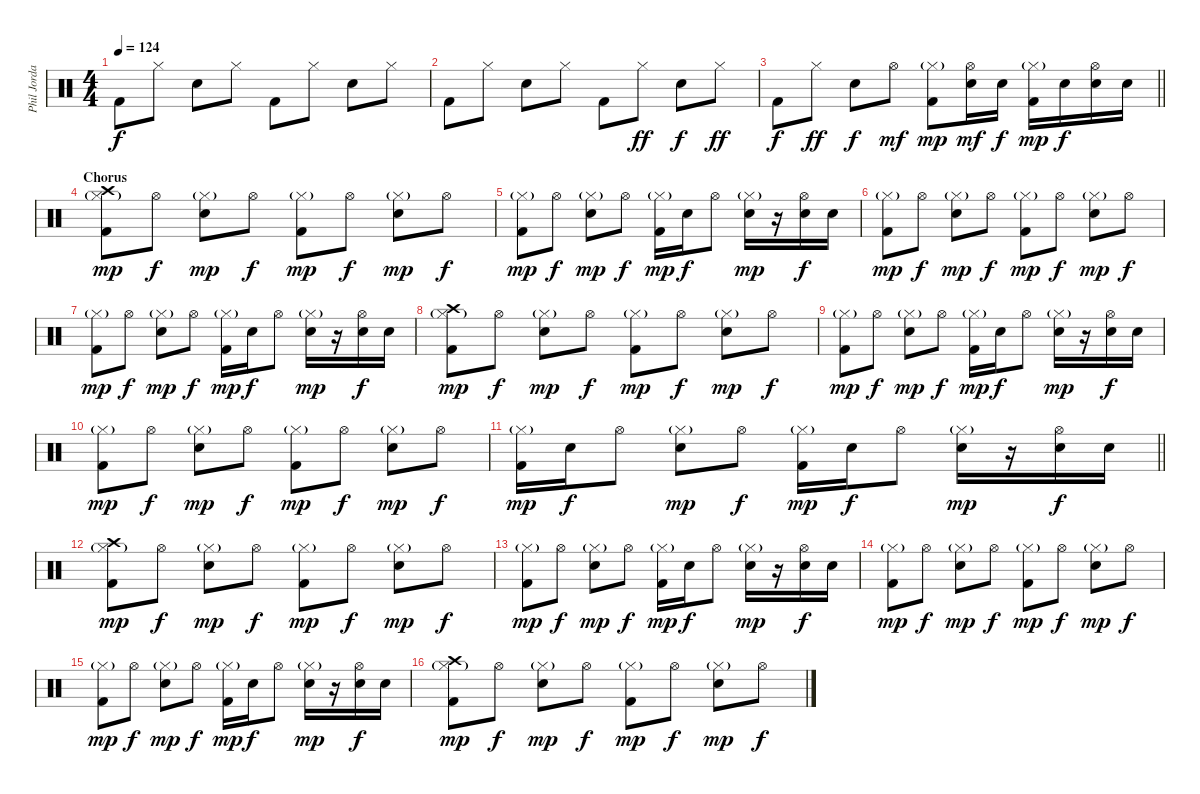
\track ("Phil Jordan (Drums)" "Phil Jorda") {instrument percussion}
\staff {score}
\articulation defaults
\ts (4 4)
\tempo 124
\clef neutral
\ks c "Kick (hit) 2".8{dy f} "Hi-Hat (closed)".8 "Electric Snare (hit)".8 "Hi-Hat (closed)".8 "Kick (hit) 2".8 "Hi-Hat (closed)".8 "Electric Snare (hit)".8 "Hi-Hat (closed)".8
|
"Kick (hit) 2".8 "Hi-Hat (closed)".8 "Electric Snare (hit)".8 "Hi-Hat (closed)".8 "Kick (hit) 2".8 "Hi-Hat (closed)".8{dy ff} "Electric Snare (hit)".8{dy f} "Hi-Hat (closed)".8{dy ff} |
\barLineRight lightlight "Kick (hit) 2".8{dy f} "Hi-Hat (closed)".8{dy ff} "Electric Snare (hit)".8{dy f} "Hi-Hat (open)".8{dy mf}
("Hi-Hat (closed)"{g} "Kick (hit) 2").8{dy mp} ("Hi-Hat (open)" "Electric Snare (hit)").16{dy mf} "Electric Snare (hit)".16{dy f} ("Hi-Hat (closed)"{g} "Kick (hit) 2").16{dy mp} "Electric Snare (hit)".16{dy f} ("Hi-Hat (open)" "Electric Snare (hit)").16 "Electric Snare (hit)".16 |
\section ("" "Chorus")
("Crash high (hit)" "Hi-Hat (closed)"{g} "Kick (hit) 2").8{dy mp} "Hi-Hat (open)".8{dy f} ("Hi-Hat (closed)"{g} "Electric Snare (hit)").8{dy mp} "Hi-Hat (open)".8{dy f} ("Hi-Hat (closed)"{g} "Kick (hit) 2").8{dy mp} "Hi-Hat (open)".8{dy f} ("Hi-Hat (closed)"{g} "Electric Snare (hit)").8{dy mp} "Hi-Hat (open)".8{dy f} |
("Hi-Hat (closed)"{g} "Kick (hit) 2").8{dy mp} "Hi-Hat (open)".8{dy f} ("Hi-Hat (closed)"{g} "Electric Snare (hit)").8{dy mp} "Hi-Hat (open)".8{dy f} ("Hi-Hat (closed)"{g} "Kick (hit) 2").16{dy mp} "Electric Snare (hit)".16{dy f} "Hi-Hat (open)".8 ("Hi-Hat (closed)"{g} "Electric Snare (hit)").16{dy mp} r.16 ("Hi-Hat (open)" "Electric Snare (hit)").16{dy f} "Electric Snare (hit)".16 |
("Hi-Hat (closed)"{g} "Kick (hit) 2").8{dy mp} "Hi-Hat (open)".8{dy f} ("Hi-Hat (closed)"{g} "Electric Snare (hit)").8{dy mp} "Hi-Hat (open)".8{dy f} ("Hi-Hat (closed)"{g} "Kick (hit) 2").8{dy mp} "Hi-Hat (open)".8{dy f} ("Hi-Hat (closed)"{g} "Electric Snare (hit)").8{dy mp} "Hi-Hat (open)".8{dy f} |
("Hi-Hat (closed)"{g} "Kick (hit) 2").8{dy mp} "Hi-Hat (open)".8{dy f} ("Hi-Hat (closed)"{g} "Electric Snare (hit)").8{dy mp} "Hi-Hat (open)".8{dy f} ("Hi-Hat (closed)"{g} "Kick (hit) 2").16{dy mp} "Electric Snare (hit)".16{dy f} "Hi-Hat (open)".8 ("Hi-Hat (closed)"{g} "Electric Snare (hit)").16{dy mp} r.16 ("Hi-Hat (open)" "Electric Snare (hit)").16{dy f} "Electric Snare (hit)".16 |
("Crash high (hit)" "Hi-Hat (closed)"{g} "Kick (hit) 2").8{dy mp} "Hi-Hat (open)".8{dy f} ("Hi-Hat (closed)"{g} "Electric Snare (hit)").8{dy mp} "Hi-Hat (open)".8{dy f} ("Hi-Hat (closed)"{g} "Kick (hit) 2").8{dy mp} "Hi-Hat (open)".8{dy f} ("Hi-Hat (closed)"{g} "Electric Snare (hit)").8{dy mp} "Hi-Hat (open)".8{dy f} |
("Hi-Hat (closed)"{g} "Kick (hit) 2").8{dy mp} "Hi-Hat (open)".8{dy f} ("Hi-Hat (closed)"{g} "Electric Snare (hit)").8{dy mp} "Hi-Hat (open)".8{dy f} ("Hi-Hat (closed)"{g} "Kick (hit) 2").16{dy mp} "Electric Snare (hit)".16{dy f} "Hi-Hat (open)".8 ("Hi-Hat (closed)"{g} "Electric Snare (hit)").16{dy mp} r.16 ("Hi-Hat (open)" "Electric Snare (hit)").16{dy f} "Electric Snare (hit)".16 |
("Hi-Hat (closed)"{g} "Kick (hit) 2").8{dy mp} "Hi-Hat (open)".8{dy f} ("Hi-Hat (closed)"{g} "Electric Snare (hit)").8{dy mp} "Hi-Hat (open)".8{dy f} ("Hi-Hat (closed)"{g} "Kick (hit) 2").8{dy mp} "Hi-Hat (open)".8{dy f} ("Hi-Hat (closed)"{g} "Electric Snare (hit)").8{dy mp} "Hi-Hat (open)".8{dy f} |
\barLineRight lightlight
("Hi-Hat (closed)"{g} "Kick (hit) 2").16{dy mp} "Electric Snare (hit)".16{dy f} "Hi-Hat (open)".8 ("Hi-Hat (closed)"{g} "Electric Snare (hit)").8{dy mp} "Hi-Hat (open)".8{dy f} ("Hi-Hat (closed)"{g} "Kick (hit) 2").16{dy mp} "Electric Snare (hit)".16{dy f} "Hi-Hat (open)".8 ("Hi-Hat (closed)"{g} "Electric Snare (hit)").16{dy mp} r.16 ("Hi-Hat (open)" "Electric Snare (hit)").16{dy f} "Electric Snare (hit)".16 |
("Crash high (hit)" "Hi-Hat (closed)"{g} "Kick (hit) 2").8{dy mp} "Hi-Hat (open)".8{dy f} ("Hi-Hat (closed)"{g} "Electric Snare (hit)").8{dy mp} "Hi-Hat (open)".8{dy f} ("Hi-Hat (closed)"{g} "Kick (hit) 2").8{dy mp} "Hi-Hat (open)".8{dy f} ("Hi-Hat (closed)"{g} "Electric Snare (hit)").8{dy mp} "Hi-Hat (open)".8{dy f} |
("Hi-Hat (closed)"{g} "Kick (hit) 2").8{dy mp} "Hi-Hat (open)".8{dy f} ("Hi-Hat (closed)"{g} "Electric Snare (hit)").8{dy mp} "Hi-Hat (open)".8{dy f} ("Hi-Hat (closed)"{g} "Kick (hit) 2").16{dy mp} "Electric Snare (hit)".16{dy f} "Hi-Hat (open)".8 ("Hi-Hat (closed)"{g} "Electric Snare (hit)").16{dy mp} r.16 ("Hi-Hat (open)" "Electric Snare (hit)").16{dy f} "Electric Snare (hit)".16 |
("Hi-Hat (closed)"{g} "Kick (hit) 2").8{dy mp} "Hi-Hat (open)".8{dy f} ("Hi-Hat (closed)"{g} "Electric Snare (hit)").8{dy mp} "Hi-Hat (open)".8{dy f} ("Hi-Hat (closed)"{g} "Kick (hit) 2").8{dy mp} "Hi-Hat (open)".8{dy f} ("Hi-Hat (closed)"{g} "Electric Snare (hit)").8{dy mp} "Hi-Hat (open)".8{dy f} |
("Hi-Hat (closed)"{g} "Kick (hit) 2").8{dy mp} "Hi-Hat (open)".8{dy f} ("Hi-Hat (closed)"{g} "Electric Snare (hit)").8{dy mp} "Hi-Hat (open)".8{dy f} ("Hi-Hat (closed)"{g} "Kick (hit) 2").16{dy mp} "Electric Snare (hit)".16{dy f} "Hi-Hat (open)".8 ("Hi-Hat (closed)"{g} "Electric Snare (hit)").16{dy mp} r.16 ("Hi-Hat (open)" "Electric Snare (hit)").16{dy f} "Electric Snare (hit)".16 |
("Crash high (hit)" "Hi-Hat (closed)"{g} "Kick (hit) 2").8{dy mp} "Hi-Hat (open)".8{dy f} ("Hi-Hat (closed)"{g} "Electric Snare (hit)").8{dy mp} "Hi-Hat (open)".8{dy f} ("Hi-Hat (closed)"{g} "Kick (hit) 2").8{dy mp} "Hi-Hat (open)".8{dy f} ("Hi-Hat (closed)"{g} "Electric Snare (hit)").8{dy mp} "Hi-Hat (open)".8{dy f}
